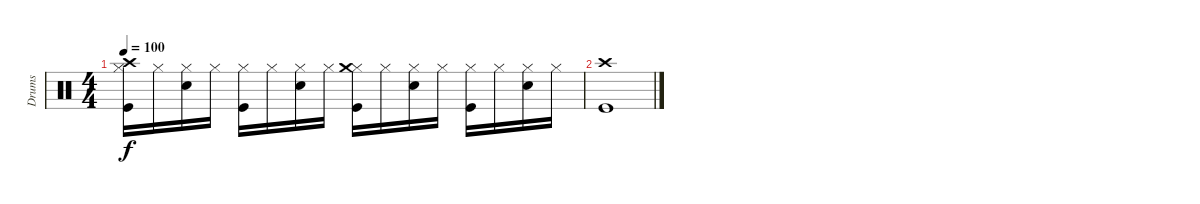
\track ("Drums" "Drums") {instrument percussion}
\staff {score}
\articulation defaults
\ts (4 4)
\tempo 100
\clef neutral
\ks c
("Kick (hit)" "Hi-Hat (closed)" "Crash high (hit)").16{dy f} "Hi-Hat (closed)".16 ("Snare (hit) 2" "Hi-Hat (closed)").16 "Hi-Hat (closed)".16 ("Kick (hit)" "Hi-Hat (closed)").16 "Hi-Hat (closed)".16 ("Snare (hit) 2" "Hi-Hat (closed)").16 "Hi-Hat (closed)".16 ("Kick (hit)" "Hi-Hat (closed)" "Crash medium (hit)").16 "Hi-Hat (closed)".16 ("Snare (hit) 2" "Hi-Hat (closed)").16 "Hi-Hat (closed)".16 ("Kick (hit)" "Hi-Hat (closed)").16 "Hi-Hat (closed)".16 ("Snare (hit) 2" "Hi-Hat (closed)").16 "Hi-Hat (closed)".16 |
("Kick (hit)" "Crash high (hit)").1
